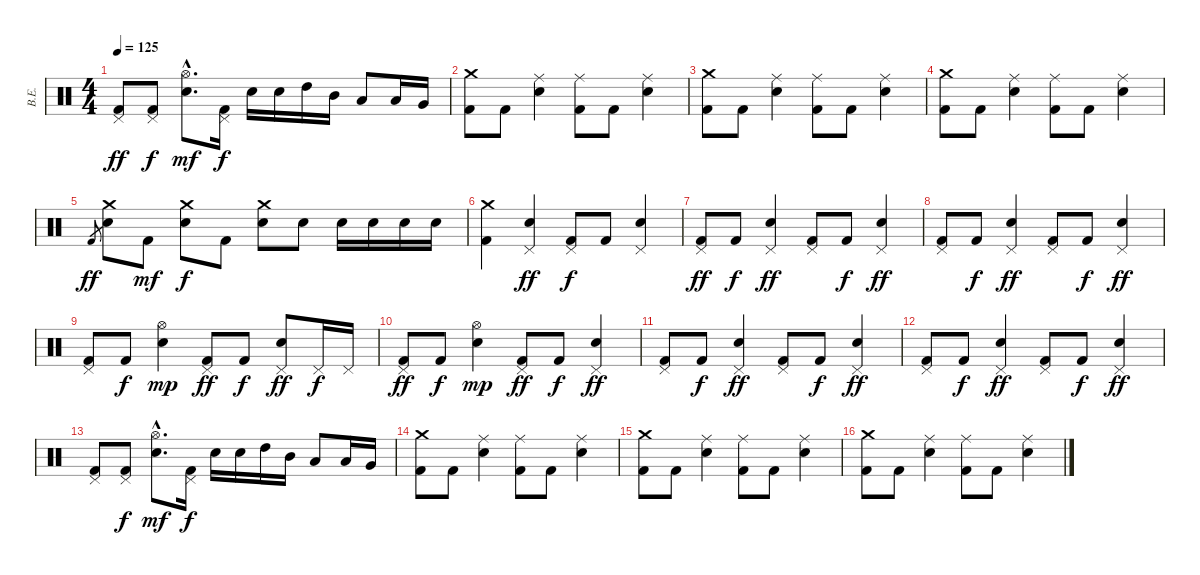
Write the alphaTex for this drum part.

\track ("В.Е." "В.Е.") {instrument percussion}
\staff {score}
\articulation defaults
\ts (4 4)
\tempo 125
\clef neutral
\ks c
("Pedal Hi-Hat (hit)" "Kick (hit) 2").8{dy ff} ("Pedal Hi-Hat (hit)" "Kick (hit) 2").8{dy f} ("Hi-Hat (open)"{hac} "Electric Snare (hit)"{hac}).8{d dy mf} ("Pedal Hi-Hat (hit)" "Kick (hit) 2").16{dy f} "Electric Snare (hit)".16 "Electric Snare (hit)".16 "High Tom (hit)".16 "Mid Tom (hit)".16 "Low Tom (hit)".8 "Low Tom (hit)".16 "Very Low Tom (hit)".16 |
("Crash medium (hit)" "Kick (hit) 2").8 "Kick (hit) 2".8 ("Ride (middle)" "Electric Snare (hit)").4 ("Ride (middle)" "Kick (hit) 2").8 "Kick (hit) 2".8 ("Ride (middle)" "Electric Snare (hit)").4 |
("Crash medium (hit)" "Kick (hit) 2").8 "Kick (hit) 2".8 ("Ride (middle)" "Electric Snare (hit)").4 ("Ride (middle)" "Kick (hit) 2").8 "Kick (hit) 2".8 ("Ride (middle)" "Electric Snare (hit)").4 |
("Crash medium (hit)" "Kick (hit) 2").8 "Kick (hit) 2".8 ("Ride (middle)" "Electric Snare (hit)").4 ("Ride (middle)" "Kick (hit) 2").8 "Kick (hit) 2".8 ("Ride (middle)" "Electric Snare (hit)").4 |
"Kick (hit) 2".8{gr dy ff} ("Crash medium (hit)" "Electric Snare (hit)").8 "Kick (hit) 2".8{dy mf} ("Crash medium (hit)" "Electric Snare (hit)").8{dy f} "Kick (hit) 2".8 ("Crash medium (hit)" "Electric Snare (hit)").8 "Electric Snare (hit)".8 "Electric Snare (hit)".16 "Electric Snare (hit)".16 "Electric Snare (hit)".16 "Electric Snare (hit)".16 |
("Crash medium (hit)" "Kick (hit) 2").4 ("Pedal Hi-Hat (hit)" "Electric Snare (hit)").4{dy ff} ("Pedal Hi-Hat (hit)" "Kick (hit) 2").8{dy f} "Kick (hit) 2".8 ("Pedal Hi-Hat (hit)" "Electric Snare (hit)").4 |
("Pedal Hi-Hat (hit)" "Kick (hit) 2").8{dy ff} "Kick (hit) 2".8{dy f} ("Pedal Hi-Hat (hit)" "Electric Snare (hit)").4{dy ff} ("Pedal Hi-Hat (hit)" "Kick (hit) 2").8 "Kick (hit) 2".8{dy f} ("Pedal Hi-Hat (hit)" "Electric Snare (hit)").4{dy ff} |
("Pedal Hi-Hat (hit)" "Kick (hit) 2").8 "Kick (hit) 2".8{dy f} ("Pedal Hi-Hat (hit)" "Electric Snare (hit)").4{dy ff} ("Pedal Hi-Hat (hit)" "Kick (hit) 2").8 "Kick (hit) 2".8{dy f} ("Pedal Hi-Hat (hit)" "Electric Snare (hit)").4{dy ff} |
("Pedal Hi-Hat (hit)" "Kick (hit) 2").8 "Kick (hit) 2".8{dy f} ("Hi-Hat (open)" "Electric Snare (hit)").4{dy mp} ("Pedal Hi-Hat (hit)" "Kick (hit) 2").8{dy ff} "Kick (hit) 2".8{dy f} ("Pedal Hi-Hat (hit)" "Electric Snare (hit)").8{dy ff} "Pedal Hi-Hat (hit)".16{dy f} "Pedal Hi-Hat (hit)".16 |
("Pedal Hi-Hat (hit)" "Kick (hit) 2").8{dy ff} "Kick (hit) 2".8{dy f} ("Hi-Hat (open)" "Electric Snare (hit)").4{dy mp} ("Pedal Hi-Hat (hit)" "Kick (hit) 2").8{dy ff} "Kick (hit) 2".8{dy f} ("Pedal Hi-Hat (hit)" "Electric Snare (hit)").4{dy ff} |
("Pedal Hi-Hat (hit)" "Kick (hit) 2").8 "Kick (hit) 2".8{dy f} ("Pedal Hi-Hat (hit)" "Electric Snare (hit)").4{dy ff} ("Pedal Hi-Hat (hit)" "Kick (hit) 2").8 "Kick (hit) 2".8{dy f} ("Pedal Hi-Hat (hit)" "Electric Snare (hit)").4{dy ff} |
("Pedal Hi-Hat (hit)" "Kick (hit) 2").8 "Kick (hit) 2".8{dy f} ("Pedal Hi-Hat (hit)" "Electric Snare (hit)").4{dy ff} ("Pedal Hi-Hat (hit)" "Kick (hit) 2").8 "Kick (hit) 2".8{dy f} ("Pedal Hi-Hat (hit)" "Electric Snare (hit)").4{dy ff} |
("Pedal Hi-Hat (hit)" "Kick (hit) 2").8 ("Pedal Hi-Hat (hit)" "Kick (hit) 2").8{dy f} ("Hi-Hat (open)"{hac} "Electric Snare (hit)"{hac}).8{d dy mf} ("Pedal Hi-Hat (hit)" "Kick (hit) 2").16{dy f} "Electric Snare (hit)".16 "Electric Snare (hit)".16 "High Tom (hit)".16 "Mid Tom (hit)".16 "Low Tom (hit)".8 "Low Tom (hit)".16 "Very Low Tom (hit)".16 |
("Crash medium (hit)" "Kick (hit) 2").8 "Kick (hit) 2".8 ("Ride (middle)" "Electric Snare (hit)").4 ("Ride (middle)" "Kick (hit) 2").8 "Kick (hit) 2".8 ("Ride (middle)" "Electric Snare (hit)").4 |
("Crash medium (hit)" "Kick (hit) 2").8 "Kick (hit) 2".8 ("Ride (middle)" "Electric Snare (hit)").4 ("Ride (middle)" "Kick (hit) 2").8 "Kick (hit) 2".8 ("Ride (middle)" "Electric Snare (hit)").4 |
("Crash medium (hit)" "Kick (hit) 2").8 "Kick (hit) 2".8 ("Ride (middle)" "Electric Snare (hit)").4 ("Ride (middle)" "Kick (hit) 2").8 "Kick (hit) 2".8 ("Ride (middle)" "Electric Snare (hit)").4
